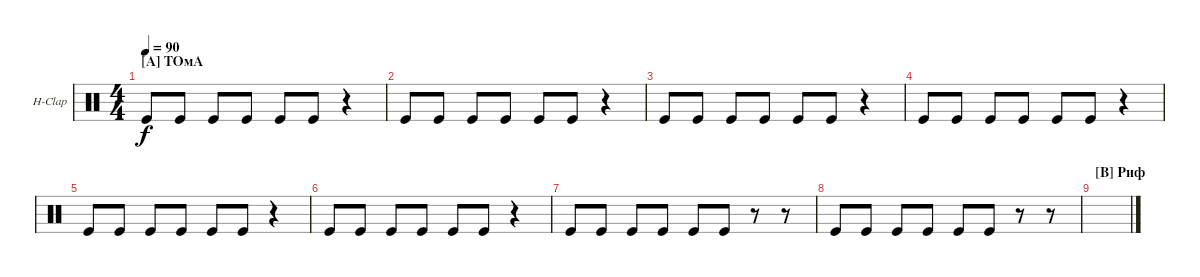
\defaultSystemsLayout 4
\bracketExtendMode groupsimilarinstruments
\firstSystemTrackNameOrientation horizontal
\otherSystemsTrackNameOrientation horizontal
\track ("Hand Clap" "H-Clap") {instrument percussion}
\staff {score}
\articulation defaults
\ts (4 4)
\section ("A" "ТОмА")
\tempo 90
\clef neutral
\scale
0.472222
\ks c "Kick (hit)".8{dy f} "Kick (hit)".8 "Kick (hit)".8 "Kick (hit)".8 "Kick (hit)".8 "Kick (hit)".8
r.4 |
\scale
0.263889 "Kick (hit)".8 "Kick (hit)".8 "Kick (hit)".8 "Kick (hit)".8 "Kick (hit)".8 "Kick (hit)".8 r.4 |
\scale
0.263889 "Kick (hit)".8 "Kick (hit)".8 "Kick (hit)".8 "Kick (hit)".8 "Kick (hit)".8 "Kick (hit)".8 r.4 |
\scale
0.333333 "Kick (hit)".8 "Kick (hit)".8 "Kick (hit)".8 "Kick (hit)".8 "Kick (hit)".8 "Kick (hit)".8 r.4 |
\scale
0.333333 "Kick (hit)".8 "Kick (hit)".8 "Kick (hit)".8 "Kick (hit)".8 "Kick (hit)".8 "Kick (hit)".8 r.4 |
\scale
0.333333 "Kick (hit)".8 "Kick (hit)".8 "Kick (hit)".8 "Kick (hit)".8 "Kick (hit)".8 "Kick (hit)".8 r.4 |
\scale
0.333333 "Kick (hit)".8 "Kick (hit)".8 "Kick (hit)".8 "Kick (hit)".8 "Kick (hit)".8 "Kick (hit)".8 r.8 r.8 |
\scale
0.333333 "Kick (hit)".8 "Kick (hit)".8 "Kick (hit)".8 "Kick (hit)".8 "Kick (hit)".8 "Kick (hit)".8 r.8 r.8 |
\section ("B" "Риф")
\scale
0.333333 |
\scale
0.333333 |
\scale
0.333333 |
\scale
0.333333 |
\scale
0.333333 |
\scale
0.333333 |
\scale
0.333333
